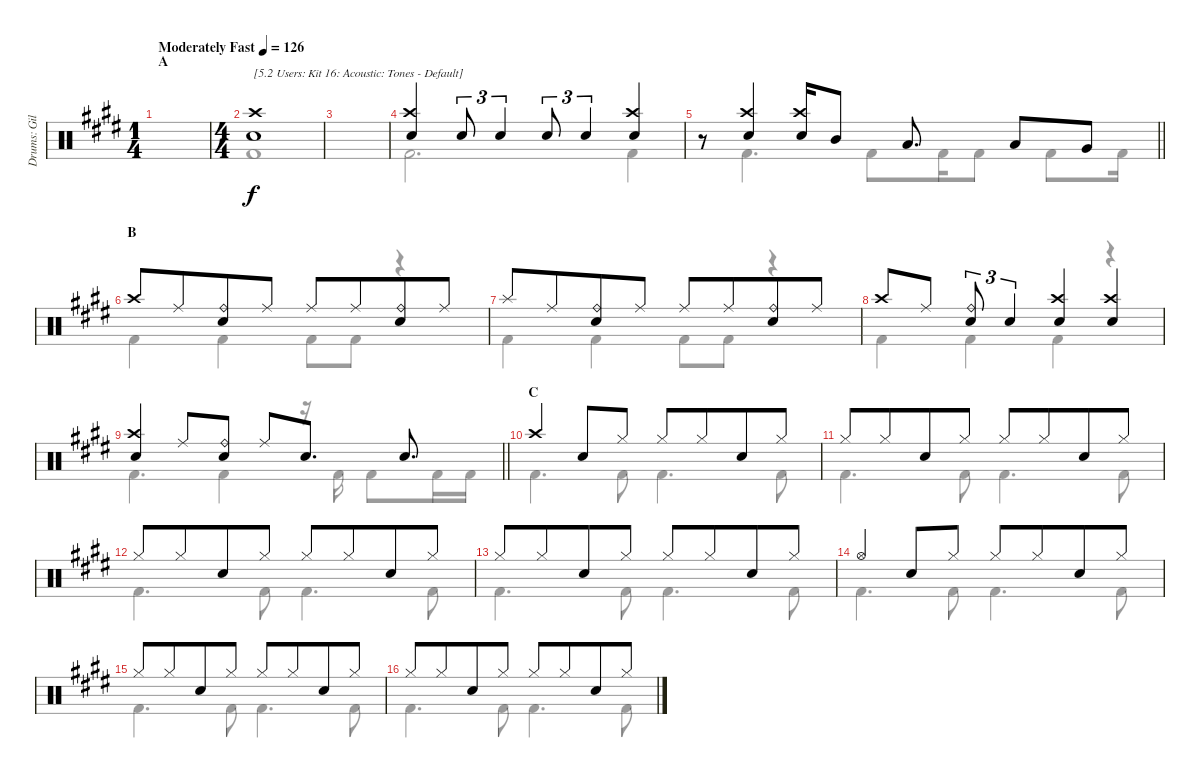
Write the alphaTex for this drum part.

\track ("Drums: Gil" "Drums: Gil") {instrument percussion}
\staff {score}
\articulation defaults
\voice
\ts (1 4)
\section ("" "A")
\tempo (126 "Moderately Fast")
\clef neutral
\ks e
|
\ts (4 4)
("Crash high (hit)" "Snare (hit) 2").1{txt "[5.2 Users: Kit 16: Acoustic: Tones - Default]"} |
|
("Crash high (hit)" "Snare (hit) 2").4 "Snare (hit) 2".8{tu (3 2)} "Snare (hit) 2".4{tu (3 2)} "Snare (hit) 2".8{tu (3 2)} "Snare (hit) 2".4{tu (3 2)} ("Crash high (hit)" "Snare (hit) 2").4 |
\barLineRight lightlight
r.8 ("Crash high (hit)" "Snare (hit) 2").4 ("Crash high (hit)" "Snare (hit) 2").16 "Mid Tom (hit)".8 "Low Tom (hit)".8{d} "Low Tom (hit)".8 "Very Low Tom (hit)".8 |
\section ("" "B")
"Crash high (hit)".8 "Ride (middle)".8{beam merge} ("Ride (bell)" "Snare (hit) 2").8 "Ride (middle)".8 "Ride (middle)".8 "Ride (middle)".8{beam merge} ("Ride (bell)" "Snare (hit) 2").8 "Ride (middle)".8 |
"Splash (hit)".8 "Ride (middle)".8{beam merge} ("Ride (bell)" "Snare (hit) 2").8 "Ride (middle)".8 "Ride (middle)".8 "Ride (middle)".8{beam merge} ("Ride (bell)" "Snare (hit) 2").8 "Ride (middle)".8 |
"Crash high (hit)".8 "Ride (middle)".8 ("Ride (bell)" "Snare (hit) 2").8{tu (3 2)} "Snare (hit) 2".4{tu (3 2)} ("Crash high (hit)" "Snare (hit) 2").4 ("Crash high (hit)" "Snare (hit) 2").4 |
\barLineRight lightlight
("Crash high (hit)" "Snare (hit) 2").4 "Ride (middle)".8 ("Ride (bell)" "Snare (hit) 2").8 "Ride (middle)".8 "Snare (hit) 2".8{d} "Snare (hit) 2".8{d} |
\section ("" "C")
"Crash high (hit)".4{beam merge} "Snare (hit) 2".8 "Hi-Hat (closed)".8 "Hi-Hat (closed)".8 "Hi-Hat (closed)".8{beam merge} "Snare (hit) 2".8 "Hi-Hat (closed)".8 |
"Hi-Hat (closed)".8 "Hi-Hat (closed)".8{beam merge} "Snare (hit) 2".8 "Hi-Hat (closed)".8 "Hi-Hat (closed)".8 "Hi-Hat (closed)".8{beam merge} "Snare (hit) 2".8 "Hi-Hat (closed)".8 |
"Hi-Hat (closed)".8 "Hi-Hat (closed)".8{beam merge} "Snare (hit) 2".8 "Hi-Hat (closed)".8 "Hi-Hat (closed)".8 "Hi-Hat (closed)".8{beam merge} "Snare (hit) 2".8 "Hi-Hat (closed)".8 |
"Hi-Hat (closed)".8 "Hi-Hat (closed)".8{beam merge} "Snare (hit) 2".8 "Hi-Hat (closed)".8 "Hi-Hat (closed)".8 "Hi-Hat (closed)".8{beam merge} "Snare (hit) 2".8 "Hi-Hat (closed)".8 |
"Hi-Hat (open)".4{beam merge} "Snare (hit) 2".8 "Hi-Hat (closed)".8 "Hi-Hat (closed)".8 "Hi-Hat (closed)".8{beam merge} "Snare (hit) 2".8 "Hi-Hat (closed)".8 |
"Hi-Hat (closed)".8 "Hi-Hat (closed)".8{beam merge} "Snare (hit) 2".8 "Hi-Hat (closed)".8 "Hi-Hat (closed)".8 "Hi-Hat (closed)".8{beam merge} "Snare (hit) 2".8 "Hi-Hat (closed)".8 |
"Hi-Hat (closed)".8 "Hi-Hat (closed)".8{beam merge} "Snare (hit) 2".8 "Hi-Hat (closed)".8 "Hi-Hat (closed)".8 "Hi-Hat (closed)".8{beam merge} "Snare (hit) 2".8 "Hi-Hat (closed)".8
\voice
\clef neutral
\ottava regular
\simile none
\ks e
|
"Kick (hit) 2".1 |
|
"Kick (hit) 2".2{d} "Kick (hit) 2".4 |
\barLineRight lightlight
r.8 "Kick (hit) 2".4{d} "Kick (hit) 2".8 "Kick (hit) 2".16 "Kick (hit) 2".8 "Kick (hit) 2".8 "Kick (hit) 2".16 |
"Kick (hit) 2".4 "Kick (hit) 2".4 "Kick (hit) 2".8 "Kick (hit) 2".8 r.4 |
"Kick (hit) 2".4 "Kick (hit) 2".4 "Kick (hit) 2".8 "Kick (hit) 2".8 r.4 |
"Kick (hit) 2".4 "Kick (hit) 2".4 "Kick (hit) 2".4 r.4 |
\barLineRight lightlight "Kick (hit) 2".4{d} "Kick (hit) 2".4
r.16 "Kick (hit) 2".16 "Kick (hit) 2".8 "Kick (hit) 2".16 "Kick (hit) 2".16 |
"Kick (hit) 2".4{d} "Kick (hit) 2".8 "Kick (hit) 2".4{d} "Kick (hit) 2".8 |
"Kick (hit) 2".4{d} "Kick (hit) 2".8 "Kick (hit) 2".4{d} "Kick (hit) 2".8 |
"Kick (hit) 2".4{d} "Kick (hit) 2".8 "Kick (hit) 2".4{d} "Kick (hit) 2".8 |
"Kick (hit) 2".4{d} "Kick (hit) 2".8 "Kick (hit) 2".4{d} "Kick (hit) 2".8 |
"Kick (hit) 2".4{d} "Kick (hit) 2".8 "Kick (hit) 2".4{d} "Kick (hit) 2".8 |
"Kick (hit) 2".4{d} "Kick (hit) 2".8 "Kick (hit) 2".4{d} "Kick (hit) 2".8 |
"Kick (hit) 2".4{d} "Kick (hit) 2".8 "Kick (hit) 2".4{d} "Kick (hit) 2".8
